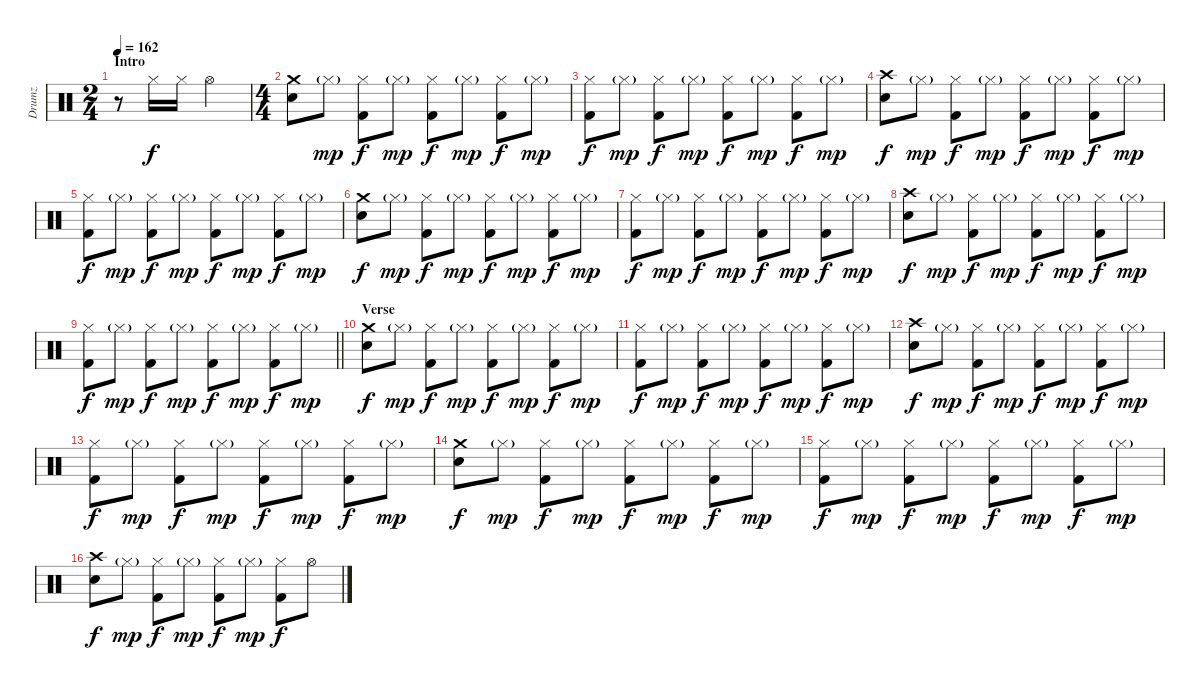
\track ("Drumz" "Drumz") {instrument percussion}
\staff {score}
\articulation defaults
\ts (2 4)
\section ("" "Intro")
\tempo 162
\clef neutral
\ks c
r.8{dy f} "Hi-Hat (closed)".16 "Hi-Hat (closed)".16 "Hi-Hat (open)".4 |
\ts (4 4)
("Crash medium (hit)" "Electric Snare (hit)").8 "Hi-Hat (closed)"{g}.8{dy mp} ("Hi-Hat (closed)" "Kick (hit) 2").8{dy f} "Hi-Hat (closed)"{g}.8{dy mp} ("Hi-Hat (closed)" "Kick (hit) 2").8{dy f} "Hi-Hat (closed)"{g}.8{dy mp} ("Hi-Hat (closed)" "Kick (hit) 2").8{dy f} "Hi-Hat (closed)"{g}.8{dy mp} |
("Hi-Hat (closed)" "Kick (hit) 2").8{dy f} "Hi-Hat (closed)"{g}.8{dy mp} ("Hi-Hat (closed)" "Kick (hit) 2").8{dy f} "Hi-Hat (closed)"{g}.8{dy mp} ("Hi-Hat (closed)" "Kick (hit) 2").8{dy f} "Hi-Hat (closed)"{g}.8{dy mp} ("Hi-Hat (closed)" "Kick (hit) 2").8{dy f} "Hi-Hat (closed)"{g}.8{dy mp} |
("Crash high (hit)" "Electric Snare (hit)").8{dy f} "Hi-Hat (closed)"{g}.8{dy mp} ("Hi-Hat (closed)" "Kick (hit) 2").8{dy f} "Hi-Hat (closed)"{g}.8{dy mp} ("Hi-Hat (closed)" "Kick (hit) 2").8{dy f} "Hi-Hat (closed)"{g}.8{dy mp} ("Hi-Hat (closed)" "Kick (hit) 2").8{dy f} "Hi-Hat (closed)"{g}.8{dy mp} |
("Hi-Hat (closed)" "Kick (hit) 2").8{dy f} "Hi-Hat (closed)"{g}.8{dy mp} ("Hi-Hat (closed)" "Kick (hit) 2").8{dy f} "Hi-Hat (closed)"{g}.8{dy mp} ("Hi-Hat (closed)" "Kick (hit) 2").8{dy f} "Hi-Hat (closed)"{g}.8{dy mp} ("Hi-Hat (closed)" "Kick (hit) 2").8{dy f} "Hi-Hat (closed)"{g}.8{dy mp} |
("Crash medium (hit)" "Electric Snare (hit)").8{dy f} "Hi-Hat (closed)"{g}.8{dy mp} ("Hi-Hat (closed)" "Kick (hit) 2").8{dy f} "Hi-Hat (closed)"{g}.8{dy mp} ("Hi-Hat (closed)" "Kick (hit) 2").8{dy f} "Hi-Hat (closed)"{g}.8{dy mp} ("Hi-Hat (closed)" "Kick (hit) 2").8{dy f} "Hi-Hat (closed)"{g}.8{dy mp} |
("Hi-Hat (closed)" "Kick (hit) 2").8{dy f} "Hi-Hat (closed)"{g}.8{dy mp} ("Hi-Hat (closed)" "Kick (hit) 2").8{dy f} "Hi-Hat (closed)"{g}.8{dy mp} ("Hi-Hat (closed)" "Kick (hit) 2").8{dy f} "Hi-Hat (closed)"{g}.8{dy mp} ("Hi-Hat (closed)" "Kick (hit) 2").8{dy f} "Hi-Hat (closed)"{g}.8{dy mp} |
("Crash high (hit)" "Electric Snare (hit)").8{dy f} "Hi-Hat (closed)"{g}.8{dy mp} ("Hi-Hat (closed)" "Kick (hit) 2").8{dy f} "Hi-Hat (closed)"{g}.8{dy mp} ("Hi-Hat (closed)" "Kick (hit) 2").8{dy f} "Hi-Hat (closed)"{g}.8{dy mp} ("Hi-Hat (closed)" "Kick (hit) 2").8{dy f} "Hi-Hat (closed)"{g}.8{dy mp} |
\barLineRight lightlight
("Hi-Hat (closed)" "Kick (hit) 2").8{dy f} "Hi-Hat (closed)"{g}.8{dy mp} ("Hi-Hat (closed)" "Kick (hit) 2").8{dy f} "Hi-Hat (closed)"{g}.8{dy mp} ("Hi-Hat (closed)" "Kick (hit) 2").8{dy f} "Hi-Hat (closed)"{g}.8{dy mp} ("Hi-Hat (closed)" "Kick (hit) 2").8{dy f} "Hi-Hat (closed)"{g}.8{dy mp} |
\section ("" "Verse")
("Crash medium (hit)" "Electric Snare (hit)").8{dy f} "Hi-Hat (closed)"{g}.8{dy mp} ("Hi-Hat (closed)" "Kick (hit) 2").8{dy f} "Hi-Hat (closed)"{g}.8{dy mp} ("Hi-Hat (closed)" "Kick (hit) 2").8{dy f} "Hi-Hat (closed)"{g}.8{dy mp} ("Hi-Hat (closed)" "Kick (hit) 2").8{dy f} "Hi-Hat (closed)"{g}.8{dy mp} |
("Hi-Hat (closed)" "Kick (hit) 2").8{dy f} "Hi-Hat (closed)"{g}.8{dy mp} ("Hi-Hat (closed)" "Kick (hit) 2").8{dy f} "Hi-Hat (closed)"{g}.8{dy mp} ("Hi-Hat (closed)" "Kick (hit) 2").8{dy f} "Hi-Hat (closed)"{g}.8{dy mp} ("Hi-Hat (closed)" "Kick (hit) 2").8{dy f} "Hi-Hat (closed)"{g}.8{dy mp} |
("Crash high (hit)" "Electric Snare (hit)").8{dy f} "Hi-Hat (closed)"{g}.8{dy mp} ("Hi-Hat (closed)" "Kick (hit) 2").8{dy f} "Hi-Hat (closed)"{g}.8{dy mp} ("Hi-Hat (closed)" "Kick (hit) 2").8{dy f} "Hi-Hat (closed)"{g}.8{dy mp} ("Hi-Hat (closed)" "Kick (hit) 2").8{dy f} "Hi-Hat (closed)"{g}.8{dy mp} |
("Hi-Hat (closed)" "Kick (hit) 2").8{dy f} "Hi-Hat (closed)"{g}.8{dy mp} ("Hi-Hat (closed)" "Kick (hit) 2").8{dy f} "Hi-Hat (closed)"{g}.8{dy mp} ("Hi-Hat (closed)" "Kick (hit) 2").8{dy f} "Hi-Hat (closed)"{g}.8{dy mp} ("Hi-Hat (closed)" "Kick (hit) 2").8{dy f} "Hi-Hat (closed)"{g}.8{dy mp} |
("Crash medium (hit)" "Electric Snare (hit)").8{dy f} "Hi-Hat (closed)"{g}.8{dy mp} ("Hi-Hat (closed)" "Kick (hit) 2").8{dy f} "Hi-Hat (closed)"{g}.8{dy mp} ("Hi-Hat (closed)" "Kick (hit) 2").8{dy f} "Hi-Hat (closed)"{g}.8{dy mp} ("Hi-Hat (closed)" "Kick (hit) 2").8{dy f} "Hi-Hat (closed)"{g}.8{dy mp} |
("Hi-Hat (closed)" "Kick (hit) 2").8{dy f} "Hi-Hat (closed)"{g}.8{dy mp} ("Hi-Hat (closed)" "Kick (hit) 2").8{dy f} "Hi-Hat (closed)"{g}.8{dy mp} ("Hi-Hat (closed)" "Kick (hit) 2").8{dy f} "Hi-Hat (closed)"{g}.8{dy mp} ("Hi-Hat (closed)" "Kick (hit) 2").8{dy f} "Hi-Hat (closed)"{g}.8{dy mp} |
("Crash high (hit)" "Electric Snare (hit)").8{dy f} "Hi-Hat (closed)"{g}.8{dy mp} ("Hi-Hat (closed)" "Kick (hit) 2").8{dy f} "Hi-Hat (closed)"{g}.8{dy mp} ("Hi-Hat (closed)" "Kick (hit) 2").8{dy f} "Hi-Hat (closed)"{g}.8{dy mp} ("Hi-Hat (closed)" "Kick (hit) 2").8{dy f} "Hi-Hat (open)".8
